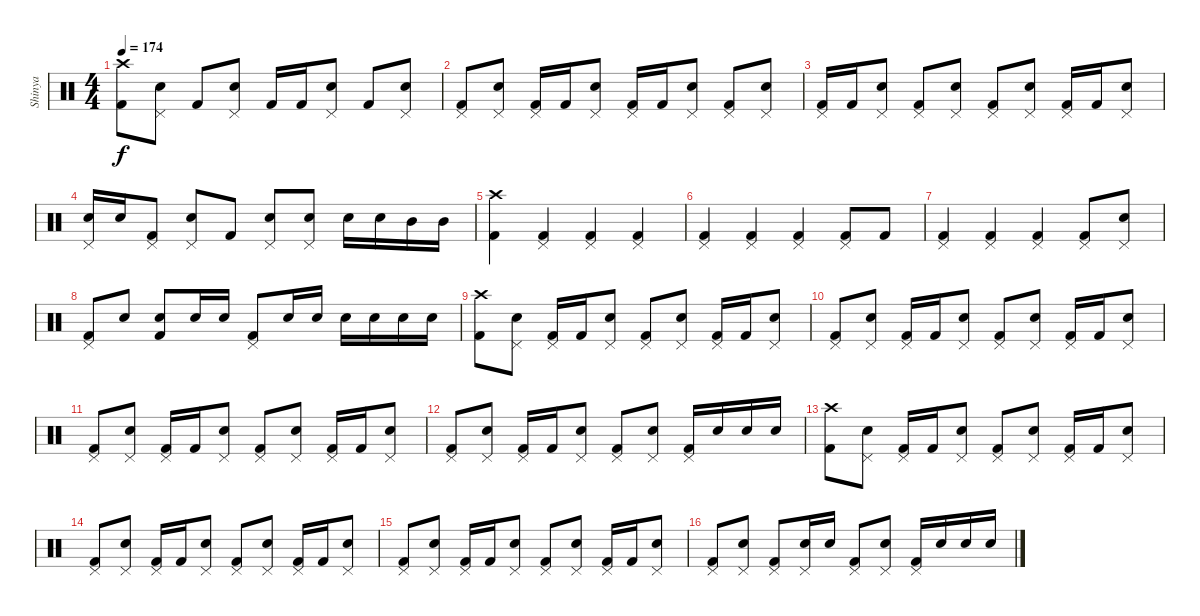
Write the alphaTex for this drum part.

\track ("Shinya" "Shinya") {instrument percussion}
\staff {score}
\articulation defaults
\ts (4 4)
\tempo 174
\clef neutral
\ks c
("Crash high (hit)" "Kick (hit) 2").8{dy f} ("Pedal Hi-Hat (hit)" "Electric Snare (hit)").8 "Kick (hit) 2".8 ("Pedal Hi-Hat (hit)" "Electric Snare (hit)").8 "Kick (hit) 2".16 "Kick (hit) 2".16 ("Pedal Hi-Hat (hit)" "Electric Snare (hit)").8 "Kick (hit) 2".8 ("Pedal Hi-Hat (hit)" "Electric Snare (hit)").8 |
("Pedal Hi-Hat (hit)" "Kick (hit) 2").8 ("Pedal Hi-Hat (hit)" "Electric Snare (hit)").8 ("Pedal Hi-Hat (hit)" "Kick (hit) 2").16 "Kick (hit) 2".16 ("Pedal Hi-Hat (hit)" "Electric Snare (hit)").8 ("Pedal Hi-Hat (hit)" "Kick (hit) 2").16 "Kick (hit) 2".16 ("Pedal Hi-Hat (hit)" "Electric Snare (hit)").8 ("Pedal Hi-Hat (hit)" "Kick (hit) 2").8 ("Pedal Hi-Hat (hit)" "Electric Snare (hit)").8 |
("Pedal Hi-Hat (hit)" "Kick (hit) 2").16 "Kick (hit) 2".16 ("Pedal Hi-Hat (hit)" "Electric Snare (hit)").8 ("Pedal Hi-Hat (hit)" "Kick (hit) 2").8 ("Pedal Hi-Hat (hit)" "Electric Snare (hit)").8 ("Pedal Hi-Hat (hit)" "Kick (hit) 2").8 ("Pedal Hi-Hat (hit)" "Electric Snare (hit)").8 ("Pedal Hi-Hat (hit)" "Kick (hit) 2").16 "Kick (hit) 2".16 ("Pedal Hi-Hat (hit)" "Electric Snare (hit)").8 |
("Pedal Hi-Hat (hit)" "Electric Snare (hit)").16 "Electric Snare (hit)".16 ("Pedal Hi-Hat (hit)" "Kick (hit) 2").8 ("Pedal Hi-Hat (hit)" "Electric Snare (hit)").8 "Kick (hit) 2".8 ("Pedal Hi-Hat (hit)" "Electric Snare (hit)").8 ("Pedal Hi-Hat (hit)" "Electric Snare (hit)").8 "Electric Snare (hit)".16 "Electric Snare (hit)".16 "Mid Tom (hit)".16 "Mid Tom (hit)".16 |
("Crash high (hit)" "Kick (hit) 2").4 ("Pedal Hi-Hat (hit)" "Kick (hit) 2").4 ("Pedal Hi-Hat (hit)" "Kick (hit) 2").4 ("Pedal Hi-Hat (hit)" "Kick (hit) 2").4 |
("Pedal Hi-Hat (hit)" "Kick (hit) 2").4 ("Pedal Hi-Hat (hit)" "Kick (hit) 2").4 ("Pedal Hi-Hat (hit)" "Kick (hit) 2").4 ("Pedal Hi-Hat (hit)" "Kick (hit) 2").8 "Kick (hit) 2".8 |
("Pedal Hi-Hat (hit)" "Kick (hit) 2").4 ("Pedal Hi-Hat (hit)" "Kick (hit) 2").4 ("Pedal Hi-Hat (hit)" "Kick (hit) 2").4 ("Pedal Hi-Hat (hit)" "Kick (hit) 2").8 ("Pedal Hi-Hat (hit)" "Electric Snare (hit)").8 |
("Pedal Hi-Hat (hit)" "Kick (hit) 2").8 "Electric Snare (hit)".8 ("Electric Snare (hit)" "Kick (hit) 2").8 "Electric Snare (hit)".16 "Electric Snare (hit)".16 ("Pedal Hi-Hat (hit)" "Kick (hit) 2").8 "Electric Snare (hit)".16 "Electric Snare (hit)".16 "Electric Snare (hit)".16 "Electric Snare (hit)".16 "Electric Snare (hit)".16 "Electric Snare (hit)".16 |
("Crash high (hit)" "Kick (hit) 2").8 ("Pedal Hi-Hat (hit)" "Electric Snare (hit)").8 ("Pedal Hi-Hat (hit)" "Kick (hit) 2").16 "Kick (hit) 2".16 ("Pedal Hi-Hat (hit)" "Electric Snare (hit)").8 ("Pedal Hi-Hat (hit)" "Kick (hit) 2").8 ("Pedal Hi-Hat (hit)" "Electric Snare (hit)").8 ("Pedal Hi-Hat (hit)" "Kick (hit) 2").16 "Kick (hit) 2".16 ("Pedal Hi-Hat (hit)" "Electric Snare (hit)").8 |
("Pedal Hi-Hat (hit)" "Kick (hit) 2").8 ("Pedal Hi-Hat (hit)" "Electric Snare (hit)").8 ("Pedal Hi-Hat (hit)" "Kick (hit) 2").16 "Kick (hit) 2".16 ("Pedal Hi-Hat (hit)" "Electric Snare (hit)").8 ("Pedal Hi-Hat (hit)" "Kick (hit) 2").8 ("Pedal Hi-Hat (hit)" "Electric Snare (hit)").8 ("Pedal Hi-Hat (hit)" "Kick (hit) 2").16 "Kick (hit) 2".16 ("Pedal Hi-Hat (hit)" "Electric Snare (hit)").8 |
("Pedal Hi-Hat (hit)" "Kick (hit) 2").8 ("Pedal Hi-Hat (hit)" "Electric Snare (hit)").8 ("Pedal Hi-Hat (hit)" "Kick (hit) 2").16 "Kick (hit) 2".16 ("Pedal Hi-Hat (hit)" "Electric Snare (hit)").8 ("Pedal Hi-Hat (hit)" "Kick (hit) 2").8 ("Pedal Hi-Hat (hit)" "Electric Snare (hit)").8 ("Pedal Hi-Hat (hit)" "Kick (hit) 2").16 "Kick (hit) 2".16 ("Pedal Hi-Hat (hit)" "Electric Snare (hit)").8 |
("Pedal Hi-Hat (hit)" "Kick (hit) 2").8 ("Pedal Hi-Hat (hit)" "Electric Snare (hit)").8 ("Pedal Hi-Hat (hit)" "Kick (hit) 2").16 "Kick (hit) 2".16 ("Pedal Hi-Hat (hit)" "Electric Snare (hit)").8 ("Pedal Hi-Hat (hit)" "Kick (hit) 2").8 ("Pedal Hi-Hat (hit)" "Electric Snare (hit)").8 ("Pedal Hi-Hat (hit)" "Kick (hit) 2").16 "Electric Snare (hit)".16 "Electric Snare (hit)".16 "Electric Snare (hit)".16 |
("Crash high (hit)" "Kick (hit) 2").8 ("Pedal Hi-Hat (hit)" "Electric Snare (hit)").8 ("Pedal Hi-Hat (hit)" "Kick (hit) 2").16 "Kick (hit) 2".16 ("Pedal Hi-Hat (hit)" "Electric Snare (hit)").8 ("Pedal Hi-Hat (hit)" "Kick (hit) 2").8 ("Pedal Hi-Hat (hit)" "Electric Snare (hit)").8 ("Pedal Hi-Hat (hit)" "Kick (hit) 2").16 "Kick (hit) 2".16 ("Pedal Hi-Hat (hit)" "Electric Snare (hit)").8 |
("Pedal Hi-Hat (hit)" "Kick (hit) 2").8 ("Pedal Hi-Hat (hit)" "Electric Snare (hit)").8 ("Pedal Hi-Hat (hit)" "Kick (hit) 2").16 "Kick (hit) 2".16 ("Pedal Hi-Hat (hit)" "Electric Snare (hit)").8 ("Pedal Hi-Hat (hit)" "Kick (hit) 2").8 ("Pedal Hi-Hat (hit)" "Electric Snare (hit)").8 ("Pedal Hi-Hat (hit)" "Kick (hit) 2").16 "Kick (hit) 2".16 ("Pedal Hi-Hat (hit)" "Electric Snare (hit)").8 |
("Pedal Hi-Hat (hit)" "Kick (hit) 2").8 ("Pedal Hi-Hat (hit)" "Electric Snare (hit)").8 ("Pedal Hi-Hat (hit)" "Kick (hit) 2").16 "Kick (hit) 2".16 ("Pedal Hi-Hat (hit)" "Electric Snare (hit)").8 ("Pedal Hi-Hat (hit)" "Kick (hit) 2").8 ("Pedal Hi-Hat (hit)" "Electric Snare (hit)").8 ("Pedal Hi-Hat (hit)" "Kick (hit) 2").16 "Kick (hit) 2".16 ("Pedal Hi-Hat (hit)" "Electric Snare (hit)").8 |
("Pedal Hi-Hat (hit)" "Kick (hit) 2").8 ("Pedal Hi-Hat (hit)" "Electric Snare (hit)").8 ("Pedal Hi-Hat (hit)" "Kick (hit) 2").8 ("Pedal Hi-Hat (hit)" "Electric Snare (hit)").16 "Electric Snare (hit)".16 ("Pedal Hi-Hat (hit)" "Kick (hit) 2").8 ("Pedal Hi-Hat (hit)" "Electric Snare (hit)").8 ("Pedal Hi-Hat (hit)" "Kick (hit) 2").16 "Electric Snare (hit)".16 "Electric Snare (hit)".16 "Electric Snare (hit)".16
